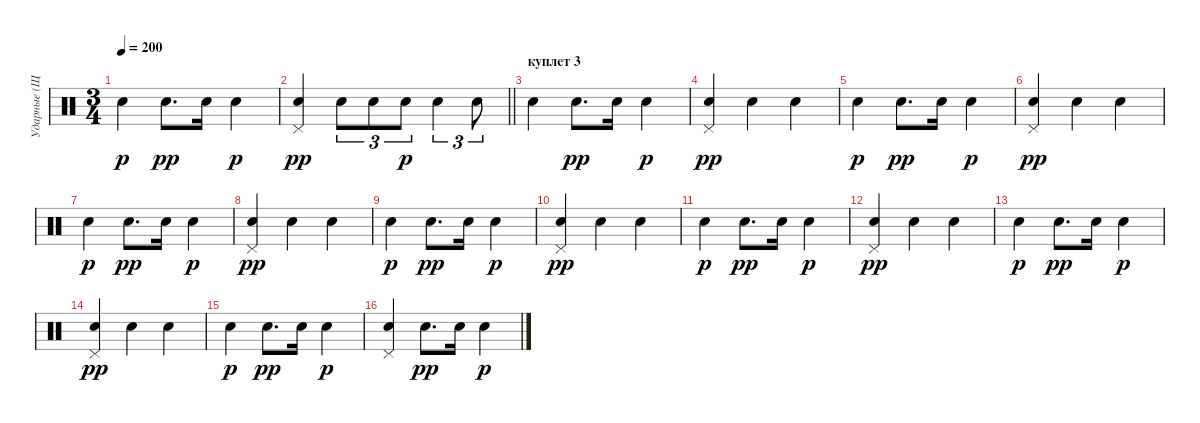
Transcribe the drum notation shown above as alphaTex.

\track ("Ударные (Щетками)" "Ударные (Щ") {instrument percussion}
\staff {score}
\articulation defaults
\ts (3 4)
\tempo 200
\clef neutral
\ks c "Snare (hit) 2".4{dy p} "Snare (hit) 2".8{d dy pp} "Snare (hit) 2".16 "Snare (hit) 2".4{dy p}
|
\barLineRight lightlight
("Pedal Hi-Hat (hit)" "Snare (hit) 2").4{dy pp} "Snare (hit) 2".8{tu (3 2)} "Snare (hit) 2".8{tu (3 2)} "Snare (hit) 2".8{tu (3 2) dy p} "Snare (hit) 2".4{tu (3 2)} "Snare (hit) 2".8{tu (3 2)} |
\section ("" "куплет 3")
"Snare (hit) 2".4 "Snare (hit) 2".8{d dy pp} "Snare (hit) 2".16 "Snare (hit) 2".4{dy p} |
("Pedal Hi-Hat (hit)" "Snare (hit) 2").4{dy pp} "Snare (hit) 2".4 "Snare (hit) 2".4 |
"Snare (hit) 2".4{dy p} "Snare (hit) 2".8{d dy pp} "Snare (hit) 2".16 "Snare (hit) 2".4{dy p} |
("Pedal Hi-Hat (hit)" "Snare (hit) 2").4{dy pp} "Snare (hit) 2".4 "Snare (hit) 2".4 |
"Snare (hit) 2".4{dy p} "Snare (hit) 2".8{d dy pp} "Snare (hit) 2".16 "Snare (hit) 2".4{dy p} |
("Pedal Hi-Hat (hit)" "Snare (hit) 2").4{dy pp} "Snare (hit) 2".4 "Snare (hit) 2".4 |
"Snare (hit) 2".4{dy p} "Snare (hit) 2".8{d dy pp} "Snare (hit) 2".16 "Snare (hit) 2".4{dy p} |
("Pedal Hi-Hat (hit)" "Snare (hit) 2").4{dy pp} "Snare (hit) 2".4 "Snare (hit) 2".4 |
"Snare (hit) 2".4{dy p} "Snare (hit) 2".8{d dy pp} "Snare (hit) 2".16 "Snare (hit) 2".4{dy p} |
("Pedal Hi-Hat (hit)" "Snare (hit) 2").4{dy pp} "Snare (hit) 2".4 "Snare (hit) 2".4 |
"Snare (hit) 2".4{dy p} "Snare (hit) 2".8{d dy pp} "Snare (hit) 2".16 "Snare (hit) 2".4{dy p} |
("Pedal Hi-Hat (hit)" "Snare (hit) 2").4{dy pp} "Snare (hit) 2".4 "Snare (hit) 2".4 |
"Snare (hit) 2".4{dy p} "Snare (hit) 2".8{d dy pp} "Snare (hit) 2".16 "Snare (hit) 2".4{dy p} |
("Pedal Hi-Hat (hit)" "Snare (hit) 2").4 "Snare (hit) 2".8{d dy pp} "Snare (hit) 2".16 "Snare (hit) 2".4{dy p}
